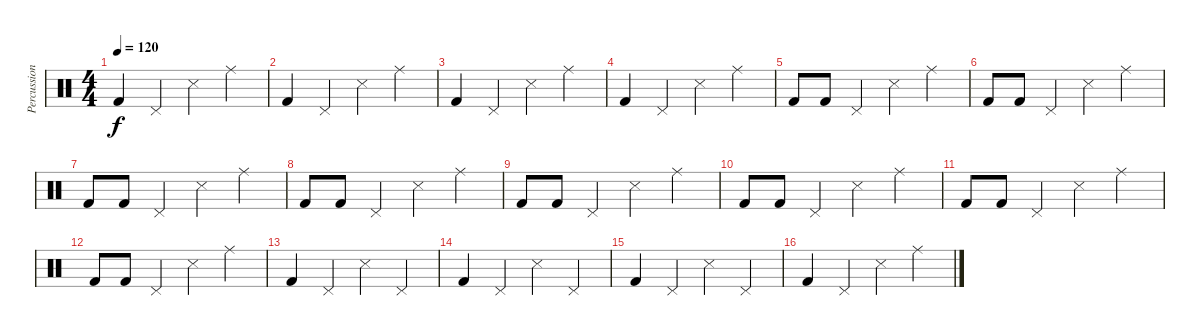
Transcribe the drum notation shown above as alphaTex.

\track ("Percussion" "Percussion") {instrument percussion}
\staff {score}
\articulation defaults
\ts (4 4)
\tempo 120
\clef neutral
\ks c "Kick (hit) 2".4{dy f} "Pedal Hi-Hat (hit)".4 "Snare (side stick) 3".4 "Ride (middle)".4
|
"Kick (hit) 2".4 "Pedal Hi-Hat (hit)".4 "Snare (side stick) 3".4 "Ride (middle)".4 |
"Kick (hit) 2".4 "Pedal Hi-Hat (hit)".4 "Snare (side stick) 3".4 "Ride (middle)".4 |
"Kick (hit) 2".4 "Pedal Hi-Hat (hit)".4 "Snare (side stick) 3".4 "Ride (middle)".4 |
"Kick (hit) 2".8 "Kick (hit) 2".8 "Pedal Hi-Hat (hit)".4 "Snare (side stick) 3".4 "Ride (middle)".4 |
"Kick (hit) 2".8 "Kick (hit) 2".8 "Pedal Hi-Hat (hit)".4 "Snare (side stick) 3".4 "Ride (middle)".4 |
"Kick (hit) 2".8 "Kick (hit) 2".8 "Pedal Hi-Hat (hit)".4 "Snare (side stick) 3".4 "Ride (middle)".4 |
"Kick (hit) 2".8 "Kick (hit) 2".8 "Pedal Hi-Hat (hit)".4 "Snare (side stick) 3".4 "Ride (middle)".4 |
"Kick (hit) 2".8 "Kick (hit) 2".8 "Pedal Hi-Hat (hit)".4 "Snare (side stick) 3".4 "Ride (middle)".4 |
"Kick (hit) 2".8 "Kick (hit) 2".8 "Pedal Hi-Hat (hit)".4 "Snare (side stick) 3".4 "Ride (middle)".4 |
"Kick (hit) 2".8 "Kick (hit) 2".8 "Pedal Hi-Hat (hit)".4 "Snare (side stick) 3".4 "Ride (middle)".4 |
"Kick (hit) 2".8 "Kick (hit) 2".8 "Pedal Hi-Hat (hit)".4 "Snare (side stick) 3".4 "Ride (middle)".4 |
"Kick (hit) 2".4 "Pedal Hi-Hat (hit)".4 "Snare (side stick) 3".4 "Pedal Hi-Hat (hit)".4 |
"Kick (hit) 2".4 "Pedal Hi-Hat (hit)".4 "Snare (side stick) 3".4 "Pedal Hi-Hat (hit)".4 |
"Kick (hit) 2".4 "Pedal Hi-Hat (hit)".4 "Snare (side stick) 3".4 "Pedal Hi-Hat (hit)".4 |
"Kick (hit) 2".4 "Pedal Hi-Hat (hit)".4 "Snare (side stick) 3".4 "Ride (middle)".4
